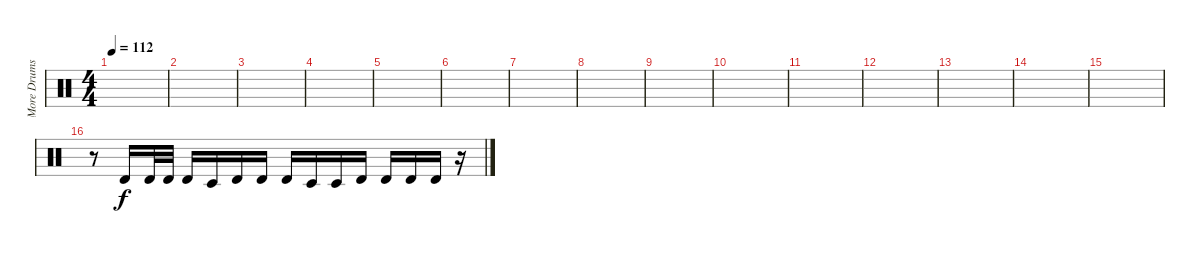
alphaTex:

\track ("More Drums" "More Drums") {instrument percussion}
\staff {score}
\articulation defaults
\ts (4 4)
\tempo 112
\clef neutral
\ks c
|
|
|
|
|
|
|
|
|
|
|
|
|
|
|
r.8 "Timbale high (hit)".16 "Timbale high (hit)".32 "Timbale high (hit)".32 "Timbale high (hit)".16 "Timbale low (hit)".16 "Timbale high (hit)".16 "Timbale high (hit)".16 "Timbale high (hit)".16 "Timbale low (hit)".16 "Timbale low (hit)".16 "Timbale high (hit)".16 "Timbale high (hit)".16 "Timbale high (hit)".16 "Timbale high (hit)".16 r.16
